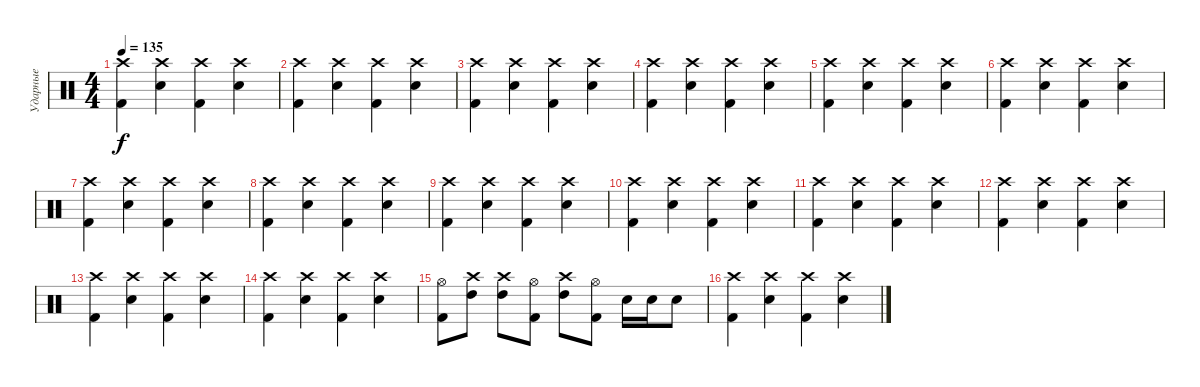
\track ("Ударные" "Ударные") {instrument percussion}
\staff {score}
\articulation defaults
\ts (4 4)
\tempo 135
\clef neutral
\ks c
("Crash high (hit)" "Kick (hit) 2").4{dy f} ("Crash high (hit)" "Snare (hit) 2").4 ("Crash high (hit)" "Kick (hit) 2").4 ("Crash high (hit)" "Snare (hit) 2").4 |
("Crash high (hit)" "Kick (hit) 2").4 ("Crash high (hit)" "Snare (hit) 2").4 ("Crash high (hit)" "Kick (hit) 2").4 ("Crash high (hit)" "Snare (hit) 2").4 |
("Crash high (hit)" "Kick (hit) 2").4 ("Crash high (hit)" "Snare (hit) 2").4 ("Crash high (hit)" "Kick (hit) 2").4 ("Crash high (hit)" "Snare (hit) 2").4 |
("Crash high (hit)" "Kick (hit) 2").4 ("Crash high (hit)" "Snare (hit) 2").4 ("Crash high (hit)" "Kick (hit) 2").4 ("Crash high (hit)" "Snare (hit) 2").4 |
("Crash high (hit)" "Kick (hit) 2").4 ("Crash high (hit)" "Snare (hit) 2").4 ("Crash high (hit)" "Kick (hit) 2").4 ("Crash high (hit)" "Snare (hit) 2").4 |
("Crash high (hit)" "Kick (hit) 2").4 ("Crash high (hit)" "Snare (hit) 2").4 ("Crash high (hit)" "Kick (hit) 2").4 ("Crash high (hit)" "Snare (hit) 2").4 |
("Crash high (hit)" "Kick (hit) 2").4 ("Crash high (hit)" "Snare (hit) 2").4 ("Crash high (hit)" "Kick (hit) 2").4 ("Crash high (hit)" "Snare (hit) 2").4 |
("Crash high (hit)" "Kick (hit) 2").4 ("Crash high (hit)" "Snare (hit) 2").4 ("Crash high (hit)" "Kick (hit) 2").4 ("Crash high (hit)" "Snare (hit) 2").4 |
("Crash high (hit)" "Kick (hit) 2").4 ("Crash high (hit)" "Snare (hit) 2").4 ("Crash high (hit)" "Kick (hit) 2").4 ("Crash high (hit)" "Snare (hit) 2").4 |
("Crash high (hit)" "Kick (hit) 2").4 ("Crash high (hit)" "Snare (hit) 2").4 ("Crash high (hit)" "Kick (hit) 2").4 ("Crash high (hit)" "Snare (hit) 2").4 |
("Crash high (hit)" "Kick (hit) 2").4 ("Crash high (hit)" "Snare (hit) 2").4 ("Crash high (hit)" "Kick (hit) 2").4 ("Crash high (hit)" "Snare (hit) 2").4 |
("Crash high (hit)" "Kick (hit) 2").4 ("Crash high (hit)" "Snare (hit) 2").4 ("Crash high (hit)" "Kick (hit) 2").4 ("Crash high (hit)" "Snare (hit) 2").4 |
("Crash high (hit)" "Kick (hit) 2").4 ("Crash high (hit)" "Snare (hit) 2").4 ("Crash high (hit)" "Kick (hit) 2").4 ("Crash high (hit)" "Snare (hit) 2").4 |
("Crash high (hit)" "Kick (hit) 2").4 ("Crash high (hit)" "Snare (hit) 2").4 ("Crash high (hit)" "Kick (hit) 2").4 ("Crash high (hit)" "Snare (hit) 2").4 |
("Hi-Hat (open)" "Kick (hit) 2").8 ("Crash high (hit)" "High Tom (hit)").8 ("Crash high (hit)" "High Tom (hit)").8 ("Hi-Hat (open)" "Kick (hit) 2").8 ("Crash high (hit)" "High Tom (hit)").8 ("Hi-Hat (open)" "Kick (hit) 2").8 "Snare (hit) 2".16 "Snare (hit) 2".16 "Snare (hit) 2".8 |
("Crash high (hit)" "Kick (hit) 2").4 ("Crash high (hit)" "Snare (hit) 2").4 ("Crash high (hit)" "Kick (hit) 2").4 ("Crash high (hit)" "Snare (hit) 2").4
